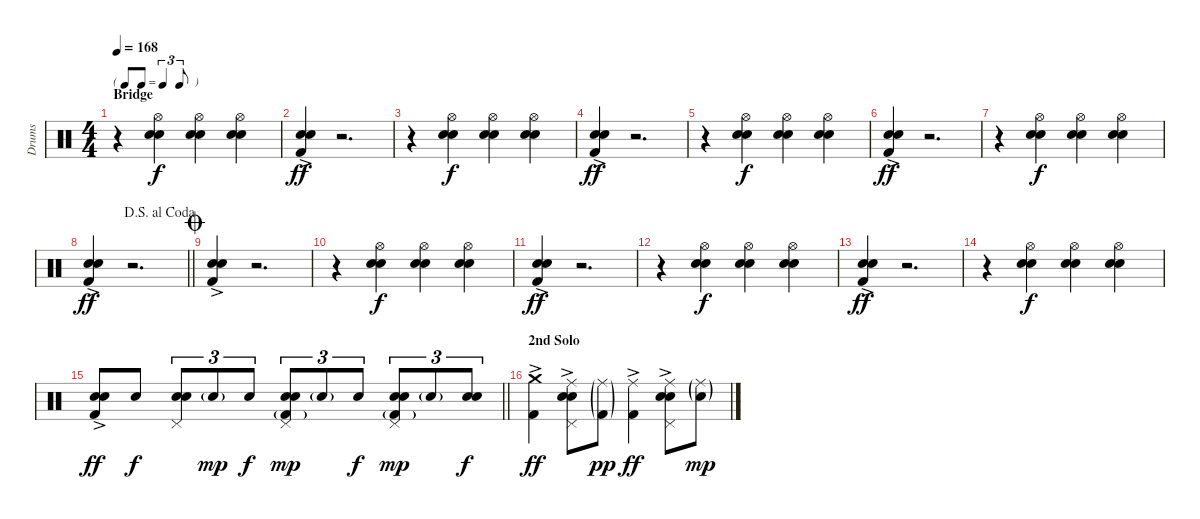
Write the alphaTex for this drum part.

\track ("Drums" "Drums") {instrument percussion}
\staff {score}
\articulation defaults
\ts (4 4)
\tf triplet8th
\section ("" "Bridge")
\tempo 168
\clef neutral
\ks c
r.4{dy mp} ("Hi-Hat (open)" "Electric Snare (hit)" "Snare (hit) 2").4{dy f} ("Hi-Hat (open)" "Electric Snare (hit)" "Snare (hit) 2").4 ("Hi-Hat (open)" "Electric Snare (hit)" "Snare (hit) 2").4 |
("Electric Snare (hit)"{ac} "Snare (hit) 2" "Kick (hit) 2"{ac}).4{dy ff} r.2{d} |
r.4 ("Hi-Hat (open)" "Electric Snare (hit)" "Snare (hit) 2").4{dy f} ("Hi-Hat (open)" "Electric Snare (hit)" "Snare (hit) 2").4 ("Hi-Hat (open)" "Electric Snare (hit)" "Snare (hit) 2").4 |
("Electric Snare (hit)"{ac} "Snare (hit) 2" "Kick (hit) 2"{ac}).4{dy ff} r.2{d} |
r.4 ("Hi-Hat (open)" "Electric Snare (hit)" "Snare (hit) 2").4{dy f} ("Hi-Hat (open)" "Electric Snare (hit)" "Snare (hit) 2").4 ("Hi-Hat (open)" "Electric Snare (hit)" "Snare (hit) 2").4 |
("Electric Snare (hit)"{ac} "Snare (hit) 2" "Kick (hit) 2"{ac}).4{dy ff} r.2{d} |
r.4 ("Hi-Hat (open)" "Electric Snare (hit)" "Snare (hit) 2").4{dy f} ("Hi-Hat (open)" "Electric Snare (hit)" "Snare (hit) 2").4 ("Hi-Hat (open)" "Electric Snare (hit)" "Snare (hit) 2").4 |
\jump dalsegnoalcoda
\barLineRight lightlight
("Electric Snare (hit)"{ac} "Snare (hit) 2" "Kick (hit) 2"{ac}).4{dy ff} r.2{d} |
\jump coda
("Electric Snare (hit)"{ac} "Snare (hit) 2" "Kick (hit) 2"{ac}).4 r.2{d} |
r.4 ("Hi-Hat (open)" "Electric Snare (hit)" "Snare (hit) 2").4{dy f} ("Hi-Hat (open)" "Electric Snare (hit)" "Snare (hit) 2").4 ("Hi-Hat (open)" "Electric Snare (hit)" "Snare (hit) 2").4 |
("Electric Snare (hit)"{ac} "Snare (hit) 2" "Kick (hit) 2"{ac}).4{dy ff} r.2{d} |
r.4 ("Hi-Hat (open)" "Electric Snare (hit)" "Snare (hit) 2").4{dy f} ("Hi-Hat (open)" "Electric Snare (hit)" "Snare (hit) 2").4 ("Hi-Hat (open)" "Electric Snare (hit)" "Snare (hit) 2").4 |
("Electric Snare (hit)"{ac} "Snare (hit) 2" "Kick (hit) 2"{ac}).4{dy ff} r.2{d} |
r.4 ("Hi-Hat (open)" "Electric Snare (hit)" "Snare (hit) 2").4{dy f} ("Hi-Hat (open)" "Electric Snare (hit)" "Snare (hit) 2").4 ("Hi-Hat (open)" "Electric Snare (hit)" "Snare (hit) 2").4 |
\barLineRight lightlight
("Electric Snare (hit)"{ac} "Snare (hit) 2" "Kick (hit) 2"{ac}).8{dy ff} "Snare (hit) 2".8{dy f} ("Pedal Hi-Hat (hit)" "Electric Snare (hit)" "Snare (hit) 2").8{tu (3 2)} "Snare (hit) 2"{g}.8{tu (3 2) dy mp} "Snare (hit) 2".8{tu (3 2) dy f} ("Pedal Hi-Hat (hit)" "Electric Snare (hit)" "Snare (hit) 2" "Kick (hit) 2"{g}).8{tu (3 2) dy mp} "Snare (hit) 2"{g}.8{tu (3 2)} "Snare (hit) 2".8{tu (3 2) dy f} ("Pedal Hi-Hat (hit)" "Electric Snare (hit)" "Snare (hit) 2" "Kick (hit) 2"{g}).8{tu (3 2) dy mp} "Snare (hit) 2"{g}.8{tu (3 2)} ("Electric Snare (hit)" "Snare (hit) 2").8{tu (3 2) dy f} |
\section ("" "2nd Solo")
("Crash medium (hit)" "Kick (hit) 2"{ac}).4{dy ff} ("Ride (middle)" "Pedal Hi-Hat (hit)" "Electric Snare (hit)"{ac} "Snare (hit) 2").8 ("Ride (middle)"{g} "Kick (hit) 2"{g}).8{dy pp} ("Ride (middle)" "Kick (hit) 2"{ac}).4{dy ff} ("Ride (middle)" "Pedal Hi-Hat (hit)" "Electric Snare (hit)"{ac} "Snare (hit) 2").8 ("Ride (middle)"{g} "Snare (hit) 2"{g}).8{dy mp}
